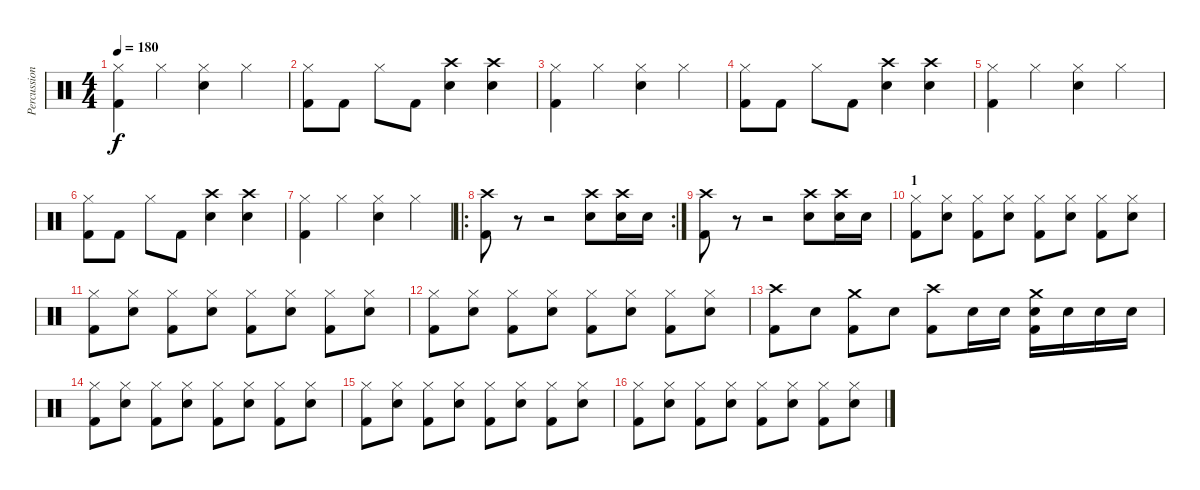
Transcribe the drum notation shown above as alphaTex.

\track ("Percussions" "Percussion") {instrument percussion}
\staff {score}
\articulation defaults
\ts (4 4)
\tempo 180
\clef neutral
\ks c
("Hi-Hat (closed)" "Kick (hit) 2").4{dy f} "Hi-Hat (closed)".4 ("Hi-Hat (closed)" "Snare (hit) 2").4 "Hi-Hat (closed)".4 |
("Hi-Hat (closed)" "Kick (hit) 2").8 "Kick (hit) 2".8 "Hi-Hat (closed)".8 "Kick (hit) 2".8 ("Crash high (hit)" "Snare (hit) 2").4 ("Crash high (hit)" "Snare (hit) 2").4 |
("Hi-Hat (closed)" "Kick (hit) 2").4 "Hi-Hat (closed)".4 ("Hi-Hat (closed)" "Snare (hit) 2").4 "Hi-Hat (closed)".4 |
("Hi-Hat (closed)" "Kick (hit) 2").8 "Kick (hit) 2".8 "Hi-Hat (closed)".8 "Kick (hit) 2".8 ("Crash high (hit)" "Snare (hit) 2").4 ("Crash high (hit)" "Snare (hit) 2").4 |
("Hi-Hat (closed)" "Kick (hit) 2").4 "Hi-Hat (closed)".4 ("Hi-Hat (closed)" "Snare (hit) 2").4 "Hi-Hat (closed)".4 |
("Hi-Hat (closed)" "Kick (hit) 2").8 "Kick (hit) 2".8 "Hi-Hat (closed)".8 "Kick (hit) 2".8 ("Crash high (hit)" "Snare (hit) 2").4 ("Crash high (hit)" "Snare (hit) 2").4 |
("Hi-Hat (closed)" "Kick (hit) 2").4 "Hi-Hat (closed)".4 ("Hi-Hat (closed)" "Snare (hit) 2").4 "Hi-Hat (closed)".4 |
\ro
\rc 2
("Crash high (hit)" "Kick (hit) 2").8 r.8 r.2 ("Crash high (hit)" "Snare (hit) 2").8 ("Crash high (hit)" "Snare (hit) 2").16 "Snare (hit) 2".16 |
("Crash high (hit)" "Kick (hit) 2").8 r.8 r.2 ("Crash high (hit)" "Snare (hit) 2").8 ("Crash high (hit)" "Snare (hit) 2").16 "Snare (hit) 2".16 |
\section ("" "1")
("Hi-Hat (closed)" "Kick (hit) 2").8 ("Hi-Hat (closed)" "Snare (hit) 2").8 ("Hi-Hat (closed)" "Kick (hit) 2").8 ("Hi-Hat (closed)" "Snare (hit) 2").8 ("Hi-Hat (closed)" "Kick (hit) 2").8 ("Hi-Hat (closed)" "Snare (hit) 2").8 ("Hi-Hat (closed)" "Kick (hit) 2").8 ("Hi-Hat (closed)" "Snare (hit) 2").8 |
("Hi-Hat (closed)" "Kick (hit) 2").8 ("Hi-Hat (closed)" "Snare (hit) 2").8 ("Hi-Hat (closed)" "Kick (hit) 2").8 ("Hi-Hat (closed)" "Snare (hit) 2").8 ("Hi-Hat (closed)" "Kick (hit) 2").8 ("Hi-Hat (closed)" "Snare (hit) 2").8 ("Hi-Hat (closed)" "Kick (hit) 2").8 ("Hi-Hat (closed)" "Snare (hit) 2").8 |
("Hi-Hat (closed)" "Kick (hit) 2").8 ("Hi-Hat (closed)" "Snare (hit) 2").8 ("Hi-Hat (closed)" "Kick (hit) 2").8 ("Hi-Hat (closed)" "Snare (hit) 2").8 ("Hi-Hat (closed)" "Kick (hit) 2").8 ("Hi-Hat (closed)" "Snare (hit) 2").8 ("Hi-Hat (closed)" "Kick (hit) 2").8 ("Hi-Hat (closed)" "Snare (hit) 2").8 |
("Crash high (hit)" "Kick (hit) 2").8 "Snare (hit) 2".8 ("Crash medium (hit)" "Kick (hit) 2").8 "Snare (hit) 2".8 ("Crash high (hit)" "Kick (hit) 2").8 "Snare (hit) 2".16 "Snare (hit) 2".16 ("Crash medium (hit)" "Snare (hit) 2" "Kick (hit) 2").16 "Snare (hit) 2".16 "Snare (hit) 2".16 "Snare (hit) 2".16 |
("Hi-Hat (closed)" "Kick (hit) 2").8 ("Hi-Hat (closed)" "Snare (hit) 2").8 ("Hi-Hat (closed)" "Kick (hit) 2").8 ("Hi-Hat (closed)" "Snare (hit) 2").8 ("Hi-Hat (closed)" "Kick (hit) 2").8 ("Hi-Hat (closed)" "Snare (hit) 2").8 ("Hi-Hat (closed)" "Kick (hit) 2").8 ("Hi-Hat (closed)" "Snare (hit) 2").8 |
("Hi-Hat (closed)" "Kick (hit) 2").8 ("Hi-Hat (closed)" "Snare (hit) 2").8 ("Hi-Hat (closed)" "Kick (hit) 2").8 ("Hi-Hat (closed)" "Snare (hit) 2").8 ("Hi-Hat (closed)" "Kick (hit) 2").8 ("Hi-Hat (closed)" "Snare (hit) 2").8 ("Hi-Hat (closed)" "Kick (hit) 2").8 ("Hi-Hat (closed)" "Snare (hit) 2").8 |
("Hi-Hat (closed)" "Kick (hit) 2").8 ("Hi-Hat (closed)" "Snare (hit) 2").8 ("Hi-Hat (closed)" "Kick (hit) 2").8 ("Hi-Hat (closed)" "Snare (hit) 2").8 ("Hi-Hat (closed)" "Kick (hit) 2").8 ("Hi-Hat (closed)" "Snare (hit) 2").8 ("Hi-Hat (closed)" "Kick (hit) 2").8 ("Hi-Hat (closed)" "Snare (hit) 2").8
